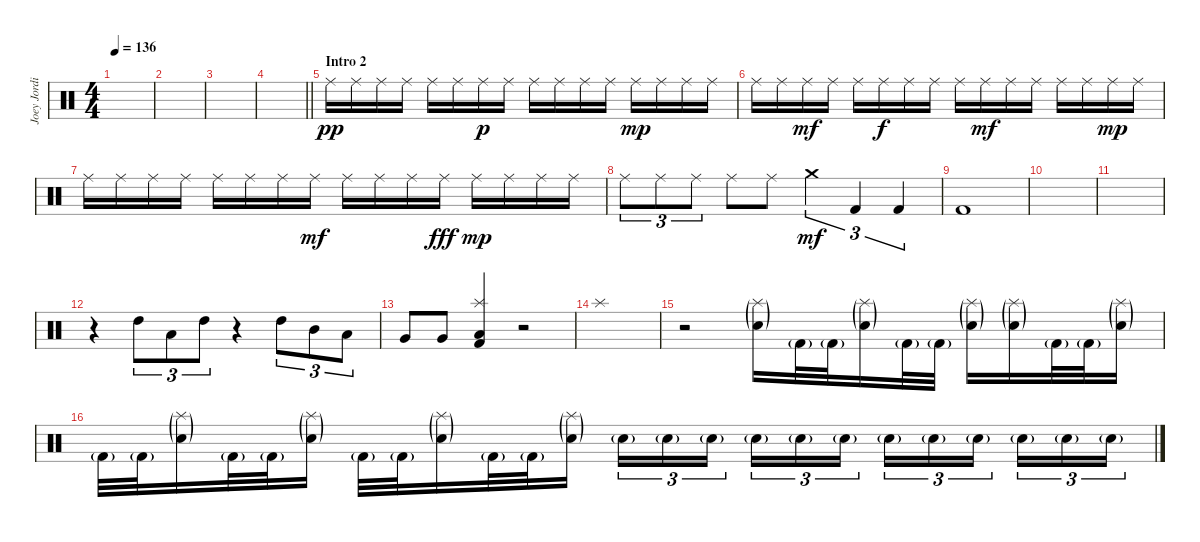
\track ("Joey Jordison" "Joey Jordi") {instrument percussion}
\staff {score}
\articulation defaults
\ts (4 4)
\tempo 136
\clef neutral
\ks c
|
|
|
\barLineRight lightlight
|
\section ("" "Intro 2")
"Ride (middle)".16{dy pp} "Ride (middle)".16 "Ride (middle)".16 "Ride (middle)".16 "Ride (middle)".16 "Ride (middle)".16 "Ride (middle)".16{dy p} "Ride (middle)".16 "Ride (middle)".16 "Ride (middle)".16 "Ride (middle)".16 "Ride (middle)".16 "Ride (middle)".16{dy mp} "Ride (middle)".16 "Ride (middle)".16 "Ride (middle)".16 |
"Ride (middle)".16 "Ride (middle)".16 "Ride (middle)".16{dy mf} "Ride (middle)".16 "Ride (middle)".16 "Ride (middle)".16{dy f} "Ride (middle)".16 "Ride (middle)".16 "Ride (middle)".16 "Ride (middle)".16{dy mf} "Ride (middle)".16 "Ride (middle)".16 "Ride (middle)".16 "Ride (middle)".16 "Ride (middle)".16{dy mp} "Ride (middle)".16 |
"Ride (middle)".16 "Ride (middle)".16 "Ride (middle)".16 "Ride (middle)".16 "Ride (middle)".16 "Ride (middle)".16 "Ride (middle)".16 "Ride (middle)".16{dy mf} "Ride (middle)".16 "Ride (middle)".16 "Ride (middle)".16 "Ride (middle)".16{dy fff} "Ride (middle)".16{dy mp} "Ride (middle)".16 "Ride (middle)".16 "Ride (middle)".16 |
"Ride (middle)".8{tu (3 2)} "Ride (middle)".8{tu (3 2)} "Ride (middle)".8{tu (3 2)} "Ride (middle)".8 "Ride (middle)".8 "Crash medium (hit)".4{tu (3 2) dy mf} "Kick (hit) 2".4{tu (3 2)} "Kick (hit) 2".4{tu (3 2)} |
"Kick (hit) 2".1 |
|
|
r.4 "High Tom (hit)".8{tu (3 2)} "Low Tom (hit)".8{tu (3 2)} "High Tom (hit)".8{tu (3 2)} r.4 "High Tom (hit)".8{tu (3 2)} "Mid Tom (hit)".8{tu (3 2)} "Low Tom (hit)".8{tu (3 2)} |
"Very Low Tom (hit)".8 "Very Low Tom (hit)".8 ("Splash (hit)" "Low Floor Tom (hit)" "Kick (hit) 2").4 r.2 |
"Splash (hit)".1 |
r.2 ("Splash (hit)"{g} "Electric Snare (hit)"{g}).16 "Kick (hit) 2"{g}.32 "Kick (hit) 2"{g}.32 ("Splash (hit)"{g} "Electric Snare (hit)"{g}).16 "Kick (hit) 2"{g}.32 "Kick (hit) 2"{g}.32 ("Splash (hit)"{g} "Electric Snare (hit)"{g}).16 ("Splash (hit)"{g} "Electric Snare (hit)"{g}).16 "Kick (hit) 2"{g}.32 "Kick (hit) 2"{g}.32 ("Splash (hit)"{g} "Electric Snare (hit)"{g}).16 |
"Kick (hit) 2"{g}.32 "Kick (hit) 2"{g}.32 ("Splash (hit)"{g} "Electric Snare (hit)"{g}).16 "Kick (hit) 2"{g}.32 "Kick (hit) 2"{g}.32 ("Splash (hit)"{g} "Electric Snare (hit)"{g}).16 "Kick (hit) 2"{g}.32 "Kick (hit) 2"{g}.32 ("Splash (hit)"{g} "Electric Snare (hit)"{g}).16 "Kick (hit) 2"{g}.32 "Kick (hit) 2"{g}.32 ("Splash (hit)"{g} "Electric Snare (hit)"{g}).16 "Electric Snare (hit)"{g}.16{tu (3 2)} "Electric Snare (hit)"{g}.16{tu (3 2)} "Electric Snare (hit)"{g}.16{tu (3 2) beam splitsecondary} "Electric Snare (hit)"{g}.16{tu (3 2)} "Electric Snare (hit)"{g}.16{tu (3 2)} "Electric Snare (hit)"{g}.16{tu (3 2)} "Electric Snare (hit)"{g}.16{tu (3 2)} "Electric Snare (hit)"{g}.16{tu (3 2)} "Electric Snare (hit)"{g}.16{tu (3 2) beam splitsecondary} "Electric Snare (hit)"{g}.16{tu (3 2)} "Electric Snare (hit)"{g}.16{tu (3 2)} "Electric Snare (hit)"{g}.16{tu (3 2)}
